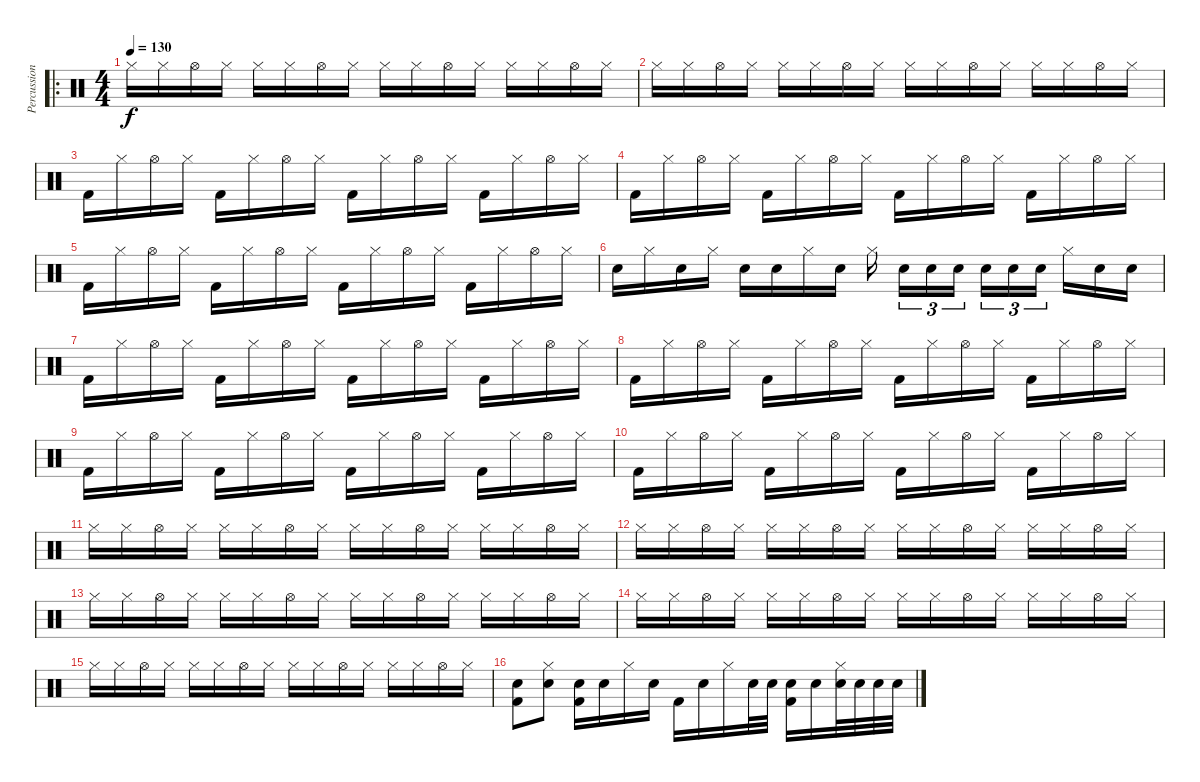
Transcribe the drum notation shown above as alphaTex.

\track ("Percussion" "Percussion") {instrument percussion}
\staff {score}
\articulation defaults
\ro
\ts (4 4)
\tempo 130
\clef neutral
\ks c "Hi-Hat (closed)".16{dy f} "Hi-Hat (closed)".16 "Hi-Hat (open)".16 "Hi-Hat (closed)".16 "Hi-Hat (closed)".16 "Hi-Hat (closed)".16 "Hi-Hat (open)".16 "Hi-Hat (closed)".16 "Hi-Hat (closed)".16 "Hi-Hat (closed)".16 "Hi-Hat (open)".16 "Hi-Hat (closed)".16 "Hi-Hat (closed)".16 "Hi-Hat (closed)".16 "Hi-Hat (open)".16 "Hi-Hat (closed)".16
|
"Hi-Hat (closed)".16 "Hi-Hat (closed)".16 "Hi-Hat (open)".16 "Hi-Hat (closed)".16 "Hi-Hat (closed)".16 "Hi-Hat (closed)".16 "Hi-Hat (open)".16 "Hi-Hat (closed)".16 "Hi-Hat (closed)".16 "Hi-Hat (closed)".16 "Hi-Hat (open)".16 "Hi-Hat (closed)".16 "Hi-Hat (closed)".16 "Hi-Hat (closed)".16 "Hi-Hat (open)".16 "Hi-Hat (closed)".16 |
"Kick (hit) 2".16 "Hi-Hat (closed)".16 "Hi-Hat (open)".16 "Hi-Hat (closed)".16 "Kick (hit) 2".16 "Hi-Hat (closed)".16 "Hi-Hat (open)".16 "Hi-Hat (closed)".16 "Kick (hit) 2".16 "Hi-Hat (closed)".16 "Hi-Hat (open)".16 "Hi-Hat (closed)".16 "Kick (hit) 2".16 "Hi-Hat (closed)".16 "Hi-Hat (open)".16 "Hi-Hat (closed)".16 |
"Kick (hit) 2".16 "Hi-Hat (closed)".16 "Hi-Hat (open)".16 "Hi-Hat (closed)".16 "Kick (hit) 2".16 "Hi-Hat (closed)".16 "Hi-Hat (open)".16 "Hi-Hat (closed)".16 "Kick (hit) 2".16 "Hi-Hat (closed)".16 "Hi-Hat (open)".16 "Hi-Hat (closed)".16 "Kick (hit) 2".16 "Hi-Hat (closed)".16 "Hi-Hat (open)".16 "Hi-Hat (closed)".16 |
"Kick (hit) 2".16 "Hi-Hat (closed)".16 "Hi-Hat (open)".16 "Hi-Hat (closed)".16 "Kick (hit) 2".16 "Hi-Hat (closed)".16 "Hi-Hat (open)".16 "Hi-Hat (closed)".16 "Kick (hit) 2".16 "Hi-Hat (closed)".16 "Hi-Hat (open)".16 "Hi-Hat (closed)".16 "Kick (hit) 2".16 "Hi-Hat (closed)".16 "Hi-Hat (open)".16 "Hi-Hat (closed)".16 |
"Snare (hit) 2".16 "Hi-Hat (closed)".16 "Snare (hit) 2".16 "Hi-Hat (closed)".16 "Snare (hit) 2".16 "Snare (hit) 2".16 "Hi-Hat (closed)".16 "Snare (hit) 2".16 "Hi-Hat (closed)".16 "Snare (hit) 2".16{tu (3 2)} "Snare (hit) 2".16{tu (3 2)} "Snare (hit) 2".16{tu (3 2)} "Snare (hit) 2".16{tu (3 2)} "Snare (hit) 2".16{tu (3 2)} "Snare (hit) 2".16{tu (3 2)} "Hi-Hat (closed)".16 "Snare (hit) 2".16 "Snare (hit) 2".16 |
"Kick (hit) 2".16 "Hi-Hat (closed)".16 "Hi-Hat (open)".16 "Hi-Hat (closed)".16 "Kick (hit) 2".16 "Hi-Hat (closed)".16 "Hi-Hat (open)".16 "Hi-Hat (closed)".16 "Kick (hit) 2".16 "Hi-Hat (closed)".16 "Hi-Hat (open)".16 "Hi-Hat (closed)".16 "Kick (hit) 2".16 "Hi-Hat (closed)".16 "Hi-Hat (open)".16 "Hi-Hat (closed)".16 |
"Kick (hit) 2".16 "Hi-Hat (closed)".16 "Hi-Hat (open)".16 "Hi-Hat (closed)".16 "Kick (hit) 2".16 "Hi-Hat (closed)".16 "Hi-Hat (open)".16 "Hi-Hat (closed)".16 "Kick (hit) 2".16 "Hi-Hat (closed)".16 "Hi-Hat (open)".16 "Hi-Hat (closed)".16 "Kick (hit) 2".16 "Hi-Hat (closed)".16 "Hi-Hat (open)".16 "Hi-Hat (closed)".16 |
"Kick (hit) 2".16 "Hi-Hat (closed)".16 "Hi-Hat (open)".16 "Hi-Hat (closed)".16 "Kick (hit) 2".16 "Hi-Hat (closed)".16 "Hi-Hat (open)".16 "Hi-Hat (closed)".16 "Kick (hit) 2".16 "Hi-Hat (closed)".16 "Hi-Hat (open)".16 "Hi-Hat (closed)".16 "Kick (hit) 2".16 "Hi-Hat (closed)".16 "Hi-Hat (open)".16 "Hi-Hat (closed)".16 |
"Kick (hit) 2".16 "Hi-Hat (closed)".16 "Hi-Hat (open)".16 "Hi-Hat (closed)".16 "Kick (hit) 2".16 "Hi-Hat (closed)".16 "Hi-Hat (open)".16 "Hi-Hat (closed)".16 "Kick (hit) 2".16 "Hi-Hat (closed)".16 "Hi-Hat (open)".16 "Hi-Hat (closed)".16 "Kick (hit) 2".16 "Hi-Hat (closed)".16 "Hi-Hat (open)".16 "Hi-Hat (closed)".16 |
"Hi-Hat (closed)".16 "Hi-Hat (closed)".16 "Hi-Hat (open)".16 "Hi-Hat (closed)".16 "Hi-Hat (closed)".16 "Hi-Hat (closed)".16 "Hi-Hat (open)".16 "Hi-Hat (closed)".16 "Hi-Hat (closed)".16 "Hi-Hat (closed)".16 "Hi-Hat (open)".16 "Hi-Hat (closed)".16 "Hi-Hat (closed)".16 "Hi-Hat (closed)".16 "Hi-Hat (open)".16 "Hi-Hat (closed)".16 |
"Hi-Hat (closed)".16 "Hi-Hat (closed)".16 "Hi-Hat (open)".16 "Hi-Hat (closed)".16 "Hi-Hat (closed)".16 "Hi-Hat (closed)".16 "Hi-Hat (open)".16 "Hi-Hat (closed)".16 "Hi-Hat (closed)".16 "Hi-Hat (closed)".16 "Hi-Hat (open)".16 "Hi-Hat (closed)".16 "Hi-Hat (closed)".16 "Hi-Hat (closed)".16 "Hi-Hat (open)".16 "Hi-Hat (closed)".16 |
"Hi-Hat (closed)".16 "Hi-Hat (closed)".16 "Hi-Hat (open)".16 "Hi-Hat (closed)".16 "Hi-Hat (closed)".16 "Hi-Hat (closed)".16 "Hi-Hat (open)".16 "Hi-Hat (closed)".16 "Hi-Hat (closed)".16 "Hi-Hat (closed)".16 "Hi-Hat (open)".16 "Hi-Hat (closed)".16 "Hi-Hat (closed)".16 "Hi-Hat (closed)".16 "Hi-Hat (open)".16 "Hi-Hat (closed)".16 |
"Hi-Hat (closed)".16 "Hi-Hat (closed)".16 "Hi-Hat (open)".16 "Hi-Hat (closed)".16 "Hi-Hat (closed)".16 "Hi-Hat (closed)".16 "Hi-Hat (open)".16 "Hi-Hat (closed)".16 "Hi-Hat (closed)".16 "Hi-Hat (closed)".16 "Hi-Hat (open)".16 "Hi-Hat (closed)".16 "Hi-Hat (closed)".16 "Hi-Hat (closed)".16 "Hi-Hat (open)".16 "Hi-Hat (closed)".16 |
"Hi-Hat (closed)".16 "Hi-Hat (closed)".16 "Hi-Hat (open)".16 "Hi-Hat (closed)".16 "Hi-Hat (closed)".16 "Hi-Hat (closed)".16 "Hi-Hat (open)".16 "Hi-Hat (closed)".16 "Hi-Hat (closed)".16 "Hi-Hat (closed)".16 "Hi-Hat (open)".16 "Hi-Hat (closed)".16 "Hi-Hat (closed)".16 "Hi-Hat (closed)".16 "Hi-Hat (open)".16 "Hi-Hat (closed)".16 |
("Kick (hit) 2" "Snare (hit) 2").8 ("Hi-Hat (closed)" "Snare (hit) 2").8 ("Kick (hit) 2" "Snare (hit) 2").16 "Snare (hit) 2".16 "Hi-Hat (closed)".16 "Snare (hit) 2".16 "Kick (hit) 2".16 "Snare (hit) 2".16 "Hi-Hat (closed)".16 "Snare (hit) 2".32 "Snare (hit) 2".32 ("Kick (hit) 2" "Snare (hit) 2").16 "Snare (hit) 2".16 ("Hi-Hat (closed)" "Snare (hit) 2").32 "Snare (hit) 2".32 "Snare (hit) 2".32 "Snare (hit) 2".32
